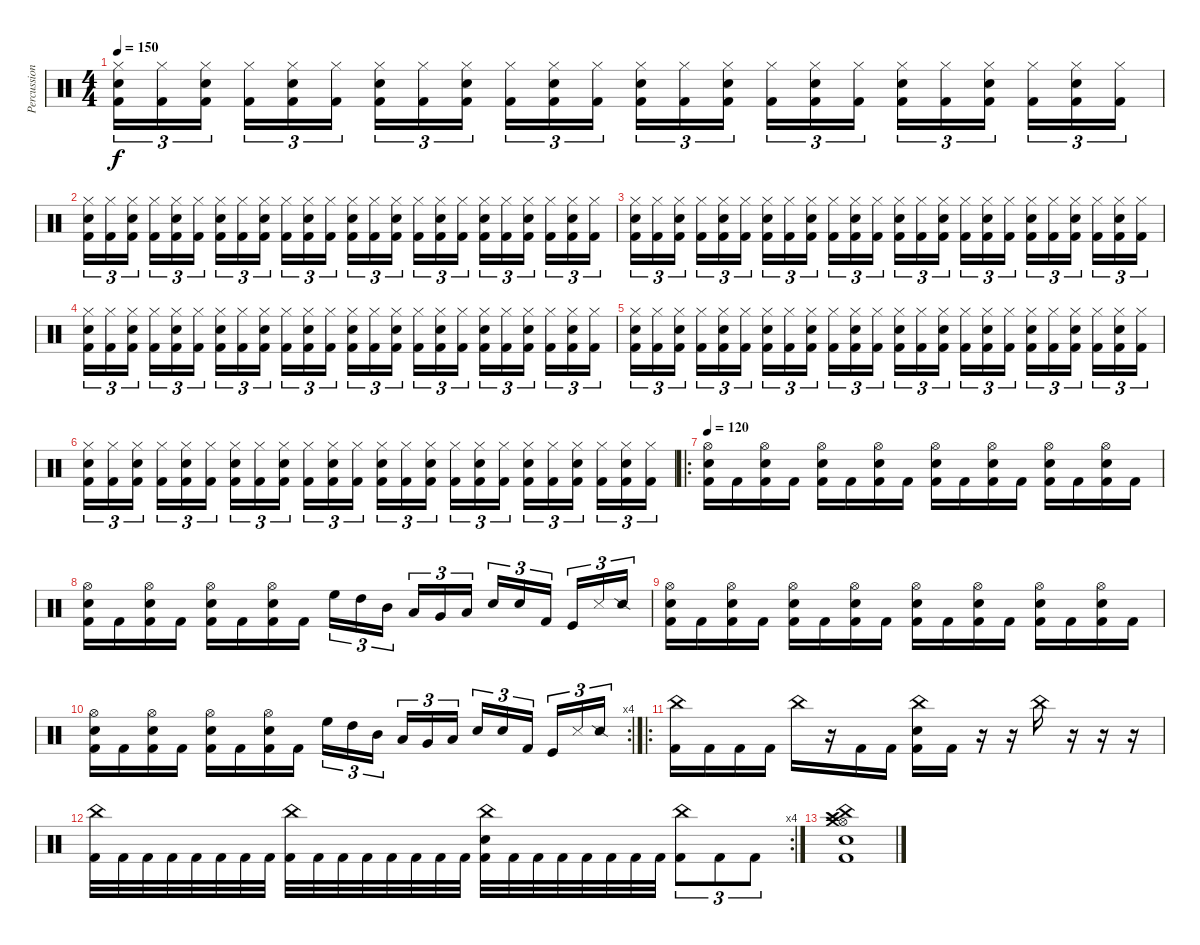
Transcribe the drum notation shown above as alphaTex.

\track ("Percussions" "Percussion") {instrument percussion}
\staff {score}
\articulation defaults
\ts (4 4)
\tempo 150
\clef neutral
\ks c
("Kick (hit) 2" "Electric Snare (hit)" "Hi-Hat (closed)").16{tu (3 2) dy f} ("Kick (hit) 2" "Hi-Hat (closed)").16{tu (3 2)} ("Kick (hit) 2" "Electric Snare (hit)" "Hi-Hat (closed)").16{tu (3 2) beam splitsecondary} ("Kick (hit) 2" "Hi-Hat (closed)").16{tu (3 2)} ("Kick (hit) 2" "Electric Snare (hit)" "Hi-Hat (closed)").16{tu (3 2)} ("Kick (hit) 2" "Hi-Hat (closed)").16{tu (3 2)} ("Kick (hit) 2" "Electric Snare (hit)" "Hi-Hat (closed)").16{tu (3 2)} ("Kick (hit) 2" "Hi-Hat (closed)").16{tu (3 2)} ("Kick (hit) 2" "Electric Snare (hit)" "Hi-Hat (closed)").16{tu (3 2) beam splitsecondary} ("Kick (hit) 2" "Hi-Hat (closed)").16{tu (3 2)} ("Kick (hit) 2" "Electric Snare (hit)" "Hi-Hat (closed)").16{tu (3 2)} ("Kick (hit) 2" "Hi-Hat (closed)").16{tu (3 2)} ("Kick (hit) 2" "Electric Snare (hit)" "Hi-Hat (closed)").16{tu (3 2)} ("Kick (hit) 2" "Hi-Hat (closed)").16{tu (3 2)} ("Kick (hit) 2" "Electric Snare (hit)" "Hi-Hat (closed)").16{tu (3 2) beam splitsecondary} ("Kick (hit) 2" "Hi-Hat (closed)").16{tu (3 2)} ("Kick (hit) 2" "Electric Snare (hit)" "Hi-Hat (closed)").16{tu (3 2)} ("Kick (hit) 2" "Hi-Hat (closed)").16{tu (3 2)} ("Kick (hit) 2" "Electric Snare (hit)" "Hi-Hat (closed)").16{tu (3 2)} ("Kick (hit) 2" "Hi-Hat (closed)").16{tu (3 2)} ("Kick (hit) 2" "Electric Snare (hit)" "Hi-Hat (closed)").16{tu (3 2) beam splitsecondary} ("Kick (hit) 2" "Hi-Hat (closed)").16{tu (3 2)} ("Kick (hit) 2" "Electric Snare (hit)" "Hi-Hat (closed)").16{tu (3 2)} ("Kick (hit) 2" "Hi-Hat (closed)").16{tu (3 2)} |
("Kick (hit) 2" "Electric Snare (hit)" "Hi-Hat (closed)").16{tu (3 2)} ("Kick (hit) 2" "Hi-Hat (closed)").16{tu (3 2)} ("Kick (hit) 2" "Electric Snare (hit)" "Hi-Hat (closed)").16{tu (3 2) beam splitsecondary} ("Kick (hit) 2" "Hi-Hat (closed)").16{tu (3 2)} ("Kick (hit) 2" "Electric Snare (hit)" "Hi-Hat (closed)").16{tu (3 2)} ("Kick (hit) 2" "Hi-Hat (closed)").16{tu (3 2)} ("Kick (hit) 2" "Electric Snare (hit)" "Hi-Hat (closed)").16{tu (3 2)} ("Kick (hit) 2" "Hi-Hat (closed)").16{tu (3 2)} ("Kick (hit) 2" "Electric Snare (hit)" "Hi-Hat (closed)").16{tu (3 2) beam splitsecondary} ("Kick (hit) 2" "Hi-Hat (closed)").16{tu (3 2)} ("Kick (hit) 2" "Electric Snare (hit)" "Hi-Hat (closed)").16{tu (3 2)} ("Kick (hit) 2" "Hi-Hat (closed)").16{tu (3 2)} ("Kick (hit) 2" "Electric Snare (hit)" "Hi-Hat (closed)").16{tu (3 2)} ("Kick (hit) 2" "Hi-Hat (closed)").16{tu (3 2)} ("Kick (hit) 2" "Electric Snare (hit)" "Hi-Hat (closed)").16{tu (3 2) beam splitsecondary} ("Kick (hit) 2" "Hi-Hat (closed)").16{tu (3 2)} ("Kick (hit) 2" "Electric Snare (hit)" "Hi-Hat (closed)").16{tu (3 2)} ("Kick (hit) 2" "Hi-Hat (closed)").16{tu (3 2)} ("Kick (hit) 2" "Electric Snare (hit)" "Hi-Hat (closed)").16{tu (3 2)} ("Kick (hit) 2" "Hi-Hat (closed)").16{tu (3 2)} ("Kick (hit) 2" "Electric Snare (hit)" "Hi-Hat (closed)").16{tu (3 2) beam splitsecondary} ("Kick (hit) 2" "Hi-Hat (closed)").16{tu (3 2)} ("Kick (hit) 2" "Electric Snare (hit)" "Hi-Hat (closed)").16{tu (3 2)} ("Kick (hit) 2" "Hi-Hat (closed)").16{tu (3 2)} |
("Kick (hit) 2" "Electric Snare (hit)" "Hi-Hat (closed)").16{tu (3 2)} ("Kick (hit) 2" "Hi-Hat (closed)").16{tu (3 2)} ("Kick (hit) 2" "Electric Snare (hit)" "Hi-Hat (closed)").16{tu (3 2) beam splitsecondary} ("Kick (hit) 2" "Hi-Hat (closed)").16{tu (3 2)} ("Kick (hit) 2" "Electric Snare (hit)" "Hi-Hat (closed)").16{tu (3 2)} ("Kick (hit) 2" "Hi-Hat (closed)").16{tu (3 2)} ("Kick (hit) 2" "Electric Snare (hit)" "Hi-Hat (closed)").16{tu (3 2)} ("Kick (hit) 2" "Hi-Hat (closed)").16{tu (3 2)} ("Kick (hit) 2" "Electric Snare (hit)" "Hi-Hat (closed)").16{tu (3 2) beam splitsecondary} ("Kick (hit) 2" "Hi-Hat (closed)").16{tu (3 2)} ("Kick (hit) 2" "Electric Snare (hit)" "Hi-Hat (closed)").16{tu (3 2)} ("Kick (hit) 2" "Hi-Hat (closed)").16{tu (3 2)} ("Kick (hit) 2" "Electric Snare (hit)" "Hi-Hat (closed)").16{tu (3 2)} ("Kick (hit) 2" "Hi-Hat (closed)").16{tu (3 2)} ("Kick (hit) 2" "Electric Snare (hit)" "Hi-Hat (closed)").16{tu (3 2) beam splitsecondary} ("Kick (hit) 2" "Hi-Hat (closed)").16{tu (3 2)} ("Kick (hit) 2" "Electric Snare (hit)" "Hi-Hat (closed)").16{tu (3 2)} ("Kick (hit) 2" "Hi-Hat (closed)").16{tu (3 2)} ("Kick (hit) 2" "Electric Snare (hit)" "Hi-Hat (closed)").16{tu (3 2)} ("Kick (hit) 2" "Hi-Hat (closed)").16{tu (3 2)} ("Kick (hit) 2" "Electric Snare (hit)" "Hi-Hat (closed)").16{tu (3 2) beam splitsecondary} ("Kick (hit) 2" "Hi-Hat (closed)").16{tu (3 2)} ("Kick (hit) 2" "Electric Snare (hit)" "Hi-Hat (closed)").16{tu (3 2)} ("Kick (hit) 2" "Hi-Hat (closed)").16{tu (3 2)} |
("Kick (hit) 2" "Electric Snare (hit)" "Hi-Hat (closed)").16{tu (3 2)} ("Kick (hit) 2" "Hi-Hat (closed)").16{tu (3 2)} ("Kick (hit) 2" "Electric Snare (hit)" "Hi-Hat (closed)").16{tu (3 2) beam splitsecondary} ("Kick (hit) 2" "Hi-Hat (closed)").16{tu (3 2)} ("Kick (hit) 2" "Electric Snare (hit)" "Hi-Hat (closed)").16{tu (3 2)} ("Kick (hit) 2" "Hi-Hat (closed)").16{tu (3 2)} ("Kick (hit) 2" "Electric Snare (hit)" "Hi-Hat (closed)").16{tu (3 2)} ("Kick (hit) 2" "Hi-Hat (closed)").16{tu (3 2)} ("Kick (hit) 2" "Electric Snare (hit)" "Hi-Hat (closed)").16{tu (3 2) beam splitsecondary} ("Kick (hit) 2" "Hi-Hat (closed)").16{tu (3 2)} ("Kick (hit) 2" "Electric Snare (hit)" "Hi-Hat (closed)").16{tu (3 2)} ("Kick (hit) 2" "Hi-Hat (closed)").16{tu (3 2)} ("Kick (hit) 2" "Electric Snare (hit)" "Hi-Hat (closed)").16{tu (3 2)} ("Kick (hit) 2" "Hi-Hat (closed)").16{tu (3 2)} ("Kick (hit) 2" "Electric Snare (hit)" "Hi-Hat (closed)").16{tu (3 2) beam splitsecondary} ("Kick (hit) 2" "Hi-Hat (closed)").16{tu (3 2)} ("Kick (hit) 2" "Electric Snare (hit)" "Hi-Hat (closed)").16{tu (3 2)} ("Kick (hit) 2" "Hi-Hat (closed)").16{tu (3 2)} ("Kick (hit) 2" "Electric Snare (hit)" "Hi-Hat (closed)").16{tu (3 2)} ("Kick (hit) 2" "Hi-Hat (closed)").16{tu (3 2)} ("Kick (hit) 2" "Electric Snare (hit)" "Hi-Hat (closed)").16{tu (3 2) beam splitsecondary} ("Kick (hit) 2" "Hi-Hat (closed)").16{tu (3 2)} ("Kick (hit) 2" "Electric Snare (hit)" "Hi-Hat (closed)").16{tu (3 2)} ("Kick (hit) 2" "Hi-Hat (closed)").16{tu (3 2)} |
("Kick (hit) 2" "Electric Snare (hit)" "Hi-Hat (closed)").16{tu (3 2)} ("Kick (hit) 2" "Hi-Hat (closed)").16{tu (3 2)} ("Kick (hit) 2" "Electric Snare (hit)" "Hi-Hat (closed)").16{tu (3 2) beam splitsecondary} ("Kick (hit) 2" "Hi-Hat (closed)").16{tu (3 2)} ("Kick (hit) 2" "Electric Snare (hit)" "Hi-Hat (closed)").16{tu (3 2)} ("Kick (hit) 2" "Hi-Hat (closed)").16{tu (3 2)} ("Kick (hit) 2" "Electric Snare (hit)" "Hi-Hat (closed)").16{tu (3 2)} ("Kick (hit) 2" "Hi-Hat (closed)").16{tu (3 2)} ("Kick (hit) 2" "Electric Snare (hit)" "Hi-Hat (closed)").16{tu (3 2) beam splitsecondary} ("Kick (hit) 2" "Hi-Hat (closed)").16{tu (3 2)} ("Kick (hit) 2" "Electric Snare (hit)" "Hi-Hat (closed)").16{tu (3 2)} ("Kick (hit) 2" "Hi-Hat (closed)").16{tu (3 2)} ("Kick (hit) 2" "Electric Snare (hit)" "Hi-Hat (closed)").16{tu (3 2)} ("Kick (hit) 2" "Hi-Hat (closed)").16{tu (3 2)} ("Kick (hit) 2" "Electric Snare (hit)" "Hi-Hat (closed)").16{tu (3 2) beam splitsecondary} ("Kick (hit) 2" "Hi-Hat (closed)").16{tu (3 2)} ("Kick (hit) 2" "Electric Snare (hit)" "Hi-Hat (closed)").16{tu (3 2)} ("Kick (hit) 2" "Hi-Hat (closed)").16{tu (3 2)} ("Kick (hit) 2" "Electric Snare (hit)" "Hi-Hat (closed)").16{tu (3 2)} ("Kick (hit) 2" "Hi-Hat (closed)").16{tu (3 2)} ("Kick (hit) 2" "Electric Snare (hit)" "Hi-Hat (closed)").16{tu (3 2) beam splitsecondary} ("Kick (hit) 2" "Hi-Hat (closed)").16{tu (3 2)} ("Kick (hit) 2" "Electric Snare (hit)" "Hi-Hat (closed)").16{tu (3 2)} ("Kick (hit) 2" "Hi-Hat (closed)").16{tu (3 2)} |
("Kick (hit) 2" "Electric Snare (hit)" "Hi-Hat (closed)").16{tu (3 2)} ("Kick (hit) 2" "Hi-Hat (closed)").16{tu (3 2)} ("Kick (hit) 2" "Electric Snare (hit)" "Hi-Hat (closed)").16{tu (3 2) beam splitsecondary} ("Kick (hit) 2" "Hi-Hat (closed)").16{tu (3 2)} ("Kick (hit) 2" "Electric Snare (hit)" "Hi-Hat (closed)").16{tu (3 2)} ("Kick (hit) 2" "Hi-Hat (closed)").16{tu (3 2)} ("Kick (hit) 2" "Electric Snare (hit)" "Hi-Hat (closed)").16{tu (3 2)} ("Kick (hit) 2" "Hi-Hat (closed)").16{tu (3 2)} ("Kick (hit) 2" "Electric Snare (hit)" "Hi-Hat (closed)").16{tu (3 2) beam splitsecondary} ("Kick (hit) 2" "Hi-Hat (closed)").16{tu (3 2)} ("Kick (hit) 2" "Electric Snare (hit)" "Hi-Hat (closed)").16{tu (3 2)} ("Kick (hit) 2" "Hi-Hat (closed)").16{tu (3 2)} ("Kick (hit) 2" "Electric Snare (hit)" "Hi-Hat (closed)").16{tu (3 2)} ("Kick (hit) 2" "Hi-Hat (closed)").16{tu (3 2)} ("Kick (hit) 2" "Electric Snare (hit)" "Hi-Hat (closed)").16{tu (3 2) beam splitsecondary} ("Kick (hit) 2" "Hi-Hat (closed)").16{tu (3 2)} ("Kick (hit) 2" "Electric Snare (hit)" "Hi-Hat (closed)").16{tu (3 2)} ("Kick (hit) 2" "Hi-Hat (closed)").16{tu (3 2)} ("Kick (hit) 2" "Electric Snare (hit)" "Hi-Hat (closed)").16{tu (3 2)} ("Kick (hit) 2" "Hi-Hat (closed)").16{tu (3 2)} ("Kick (hit) 2" "Electric Snare (hit)" "Hi-Hat (closed)").16{tu (3 2) beam splitsecondary} ("Kick (hit) 2" "Hi-Hat (closed)").16{tu (3 2)} ("Kick (hit) 2" "Electric Snare (hit)" "Hi-Hat (closed)").16{tu (3 2)} ("Kick (hit) 2" "Hi-Hat (closed)").16{tu (3 2)} |
\ro
\tempo 120
("Hi-Hat (open)" "Electric Snare (hit)" "Kick (hit) 2").16 "Kick (hit) 2".16 ("Hi-Hat (open)" "Electric Snare (hit)" "Kick (hit) 2").16 "Kick (hit) 2".16 ("Hi-Hat (open)" "Electric Snare (hit)" "Kick (hit) 2").16 "Kick (hit) 2".16 ("Hi-Hat (open)" "Electric Snare (hit)" "Kick (hit) 2").16 "Kick (hit) 2".16 ("Hi-Hat (open)" "Electric Snare (hit)" "Kick (hit) 2").16 "Kick (hit) 2".16 ("Hi-Hat (open)" "Electric Snare (hit)" "Kick (hit) 2").16 "Kick (hit) 2".16 ("Hi-Hat (open)" "Electric Snare (hit)" "Kick (hit) 2").16 "Kick (hit) 2".16 ("Hi-Hat (open)" "Electric Snare (hit)" "Kick (hit) 2").16 "Kick (hit) 2".16 |
("Hi-Hat (open)" "Electric Snare (hit)" "Kick (hit) 2").16 "Kick (hit) 2".16 ("Hi-Hat (open)" "Electric Snare (hit)" "Kick (hit) 2").16 "Kick (hit) 2".16 ("Hi-Hat (open)" "Electric Snare (hit)" "Kick (hit) 2").16 "Kick (hit) 2".16 ("Hi-Hat (open)" "Electric Snare (hit)" "Kick (hit) 2").16 "Kick (hit) 2".16 "High Floor Tom (hit)".16{tu (3 2)} "High Tom (hit)".16{tu (3 2)} "Mid Tom (hit)".16{tu (3 2) beam splitsecondary} "Low Tom (hit)".16{tu (3 2)} "Very Low Tom (hit)".16{tu (3 2)} "Low Floor Tom (hit)".16{tu (3 2)} "Electric Snare (hit)".16{tu (3 2)} "Snare (hit) 2".16{tu (3 2)} "Kick (hit) 2".16{tu (3 2) beam splitsecondary} "Kick (hit)".16{tu (3 2)} "Metronome (hit)".16{tu (3 2)} "Snare (side stick) 2".16{tu (3 2)} |
("Hi-Hat (open)" "Electric Snare (hit)" "Kick (hit) 2").16 "Kick (hit) 2".16 ("Hi-Hat (open)" "Electric Snare (hit)" "Kick (hit) 2").16 "Kick (hit) 2".16 ("Hi-Hat (open)" "Electric Snare (hit)" "Kick (hit) 2").16 "Kick (hit) 2".16 ("Hi-Hat (open)" "Electric Snare (hit)" "Kick (hit) 2").16 "Kick (hit) 2".16 ("Hi-Hat (open)" "Electric Snare (hit)" "Kick (hit) 2").16 "Kick (hit) 2".16 ("Hi-Hat (open)" "Electric Snare (hit)" "Kick (hit) 2").16 "Kick (hit) 2".16 ("Hi-Hat (open)" "Electric Snare (hit)" "Kick (hit) 2").16 "Kick (hit) 2".16 ("Hi-Hat (open)" "Electric Snare (hit)" "Kick (hit) 2").16 "Kick (hit) 2".16 |
\rc 4
("Hi-Hat (open)" "Electric Snare (hit)" "Kick (hit) 2").16 "Kick (hit) 2".16 ("Hi-Hat (open)" "Electric Snare (hit)" "Kick (hit) 2").16 "Kick (hit) 2".16 ("Hi-Hat (open)" "Electric Snare (hit)" "Kick (hit) 2").16 "Kick (hit) 2".16 ("Hi-Hat (open)" "Electric Snare (hit)" "Kick (hit) 2").16 "Kick (hit) 2".16 "High Floor Tom (hit)".16{tu (3 2)} "High Tom (hit)".16{tu (3 2)} "Mid Tom (hit)".16{tu (3 2) beam splitsecondary} "Low Tom (hit)".16{tu (3 2)} "Very Low Tom (hit)".16{tu (3 2)} "Low Floor Tom (hit)".16{tu (3 2)} "Electric Snare (hit)".16{tu (3 2)} "Snare (hit) 2".16{tu (3 2)} "Kick (hit) 2".16{tu (3 2) beam splitsecondary} "Kick (hit)".16{tu (3 2)} "Metronome (hit)".16{tu (3 2)} "Snare (side stick) 2".16{tu (3 2)} |
\ro
("China (hit)" "Kick (hit) 2").16 "Kick (hit) 2".16 "Kick (hit) 2".16 "Kick (hit) 2".16 "China (hit)".16 r.16 "Kick (hit) 2".16 "Kick (hit) 2".16 ("China (hit)" "Electric Snare (hit)" "Kick (hit) 2").16 "Kick (hit) 2".16 r.16 r.16 "China (hit)".16 r.16 r.16 r.16 |
\rc 4
("China (hit)" "Kick (hit) 2").32 "Kick (hit) 2".32 "Kick (hit) 2".32 "Kick (hit) 2".32 "Kick (hit) 2".32 "Kick (hit) 2".32 "Kick (hit) 2".32 "Kick (hit) 2".32 ("China (hit)" "Kick (hit) 2").32 "Kick (hit) 2".32 "Kick (hit) 2".32 "Kick (hit) 2".32 "Kick (hit) 2".32 "Kick (hit) 2".32 "Kick (hit) 2".32 "Kick (hit) 2".32 ("China (hit)" "Electric Snare (hit)" "Kick (hit) 2").32 "Kick (hit) 2".32 "Kick (hit) 2".32 "Kick (hit) 2".32 "Kick (hit) 2".32 "Kick (hit) 2".32 "Kick (hit) 2".32 "Kick (hit) 2".32 ("China (hit)" "Kick (hit) 2").8{tu (3 2)} "Kick (hit) 2".8{tu (3 2)} "Kick (hit) 2".8{tu (3 2)} |
("Hi-Hat (open)" "Crash medium (hit)" "Crash high (hit)" "China (hit)" "Electric Snare (hit)" "Kick (hit) 2").1
